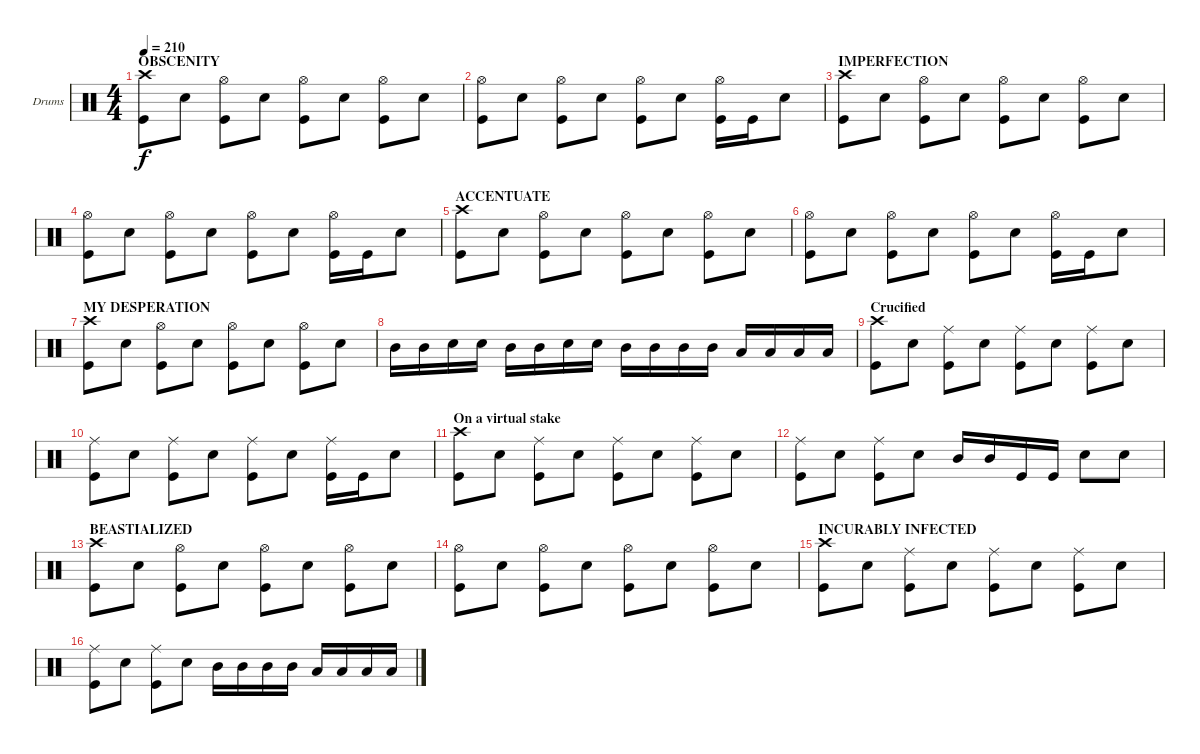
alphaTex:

\defaultSystemsLayout 4
\bracketExtendMode groupsimilarinstruments
\firstSystemTrackNameOrientation horizontal
\otherSystemsTrackNameOrientation horizontal
\track ("Markus Freiwald" "Drums") {instrument percussion}
\staff {score}
\articulation defaults
\ts (4 4)
\section ("" "OBSCENITY")
\tempo 210
\clef neutral
\scale
0.5
\ks c
("Crash high (hit)" "Kick (hit)").8{dy f} "Snare (hit) 2".8 ("Kick (hit)" "Hi-Hat (open)").8 "Snare (hit) 2".8 ("Kick (hit)" "Hi-Hat (open)").8 "Snare (hit) 2".8 ("Kick (hit)" "Hi-Hat (open)").8 "Snare (hit) 2".8 |
\scale
0.5 ("Kick (hit)" "Hi-Hat (open)").8 "Snare (hit) 2".8 ("Kick (hit)" "Hi-Hat (open)").8 "Snare (hit) 2".8 ("Kick (hit)" "Hi-Hat (open)").8 "Snare (hit) 2".8 ("Kick (hit)" "Hi-Hat (open)").16 "Kick (hit)".16 "Snare (hit) 2".8 |
\section ("" "IMPERFECTION")
\scale
0.5 ("Crash high (hit)" "Kick (hit)").8 "Snare (hit) 2".8 ("Kick (hit)" "Hi-Hat (open)").8 "Snare (hit) 2".8 ("Kick (hit)" "Hi-Hat (open)").8 "Snare (hit) 2".8 ("Kick (hit)" "Hi-Hat (open)").8 "Snare (hit) 2".8 |
\scale
0.5 ("Kick (hit)" "Hi-Hat (open)").8 "Snare (hit) 2".8 ("Kick (hit)" "Hi-Hat (open)").8 "Snare (hit) 2".8 ("Kick (hit)" "Hi-Hat (open)").8 "Snare (hit) 2".8 ("Kick (hit)" "Hi-Hat (open)").16 "Kick (hit)".16 "Snare (hit) 2".8 |
\section ("" "ACCENTUATE")
\scale
0.5 ("Crash high (hit)" "Kick (hit)").8 "Snare (hit) 2".8 ("Kick (hit)" "Hi-Hat (open)").8 "Snare (hit) 2".8 ("Kick (hit)" "Hi-Hat (open)").8 "Snare (hit) 2".8 ("Kick (hit)" "Hi-Hat (open)").8 "Snare (hit) 2".8 |
\scale
0.5 ("Kick (hit)" "Hi-Hat (open)").8 "Snare (hit) 2".8 ("Kick (hit)" "Hi-Hat (open)").8 "Snare (hit) 2".8 ("Kick (hit)" "Hi-Hat (open)").8 "Snare (hit) 2".8 ("Kick (hit)" "Hi-Hat (open)").16 "Kick (hit)".16 "Snare (hit) 2".8 |
\section ("" "MY DESPERATION")
\scale
0.5 ("Crash high (hit)" "Kick (hit)").8 "Snare (hit) 2".8 ("Kick (hit)" "Hi-Hat (open)").8 "Snare (hit) 2".8 ("Kick (hit)" "Hi-Hat (open)").8 "Snare (hit) 2".8 ("Kick (hit)" "Hi-Hat (open)").8 "Snare (hit) 2".8 |
\scale
0.5 "Mid Tom (hit)".16 "Mid Tom (hit)".16 "Snare (hit) 2".16 "Snare (hit) 2".16 "Mid Tom (hit)".16 "Mid Tom (hit)".16 "Snare (hit) 2".16 "Snare (hit) 2".16 "Mid Tom (hit)".16 "Mid Tom (hit)".16 "Mid Tom (hit)".16 "Mid Tom (hit)".16 "Low Tom (hit)".16 "Low Tom (hit)".16 "Low Tom (hit)".16 "Low Tom (hit)".16 |
\section ("" "Crucified")
\scale
0.5 ("Crash high (hit)" "Kick (hit)").8 "Snare (hit) 2".8 ("Ride (middle)" "Kick (hit)").8 "Snare (hit) 2".8 ("Ride (middle)" "Kick (hit)").8 "Snare (hit) 2".8 ("Ride (middle)" "Kick (hit)").8 "Snare (hit) 2".8 |
\scale
0.5 ("Ride (middle)" "Kick (hit)").8 "Snare (hit) 2".8 ("Ride (middle)" "Kick (hit)").8 "Snare (hit) 2".8 ("Ride (middle)" "Kick (hit)").8 "Snare (hit) 2".8 ("Ride (middle)" "Kick (hit)").16 "Kick (hit)".16 "Snare (hit) 2".8 |
\section ("" "On a virtual stake")
\scale
0.5 ("Crash high (hit)" "Kick (hit)").8 "Snare (hit) 2".8 ("Ride (middle)" "Kick (hit)").8 "Snare (hit) 2".8 ("Ride (middle)" "Kick (hit)").8 "Snare (hit) 2".8 ("Ride (middle)" "Kick (hit)").8 "Snare (hit) 2".8 |
\scale
0.5 ("Ride (middle)" "Kick (hit)").8 "Snare (hit) 2".8 ("Ride (middle)" "Kick (hit)").8 "Snare (hit) 2".8 "Mid Tom (hit)".16 "Mid Tom (hit)".16 "Kick (hit)".16 "Kick (hit)".16 "Snare (hit) 2".8 "Snare (hit) 2".8 |
\section ("" "BEASTIALIZED")
\scale
0.5 ("Crash high (hit)" "Kick (hit)").8 "Snare (hit) 2".8 ("Kick (hit)" "Hi-Hat (open)").8 "Snare (hit) 2".8 ("Kick (hit)" "Hi-Hat (open)").8 "Snare (hit) 2".8 ("Kick (hit)" "Hi-Hat (open)").8 "Snare (hit) 2".8 |
\scale
0.5 ("Kick (hit)" "Hi-Hat (open)").8 "Snare (hit) 2".8 ("Kick (hit)" "Hi-Hat (open)").8 "Snare (hit) 2".8 ("Kick (hit)" "Hi-Hat (open)").8 "Snare (hit) 2".8 ("Kick (hit)" "Hi-Hat (open)").8 "Snare (hit) 2".8 |
\section ("" "INCURABLY INFECTED")
\scale
0.5 ("Crash high (hit)" "Kick (hit)").8 "Snare (hit) 2".8 ("Ride (middle)" "Kick (hit)").8 "Snare (hit) 2".8 ("Ride (middle)" "Kick (hit)").8 "Snare (hit) 2".8 ("Ride (middle)" "Kick (hit)").8 "Snare (hit) 2".8 |
\scale
0.5 ("Ride (middle)" "Kick (hit)").8 "Snare (hit) 2".8 ("Ride (middle)" "Kick (hit)").8 "Snare (hit) 2".8 "Mid Tom (hit)".16 "Mid Tom (hit)".16 "Mid Tom (hit)".16 "Mid Tom (hit)".16 "Low Tom (hit)".16 "Low Tom (hit)".16 "Low Tom (hit)".16 "Low Tom (hit)".16
